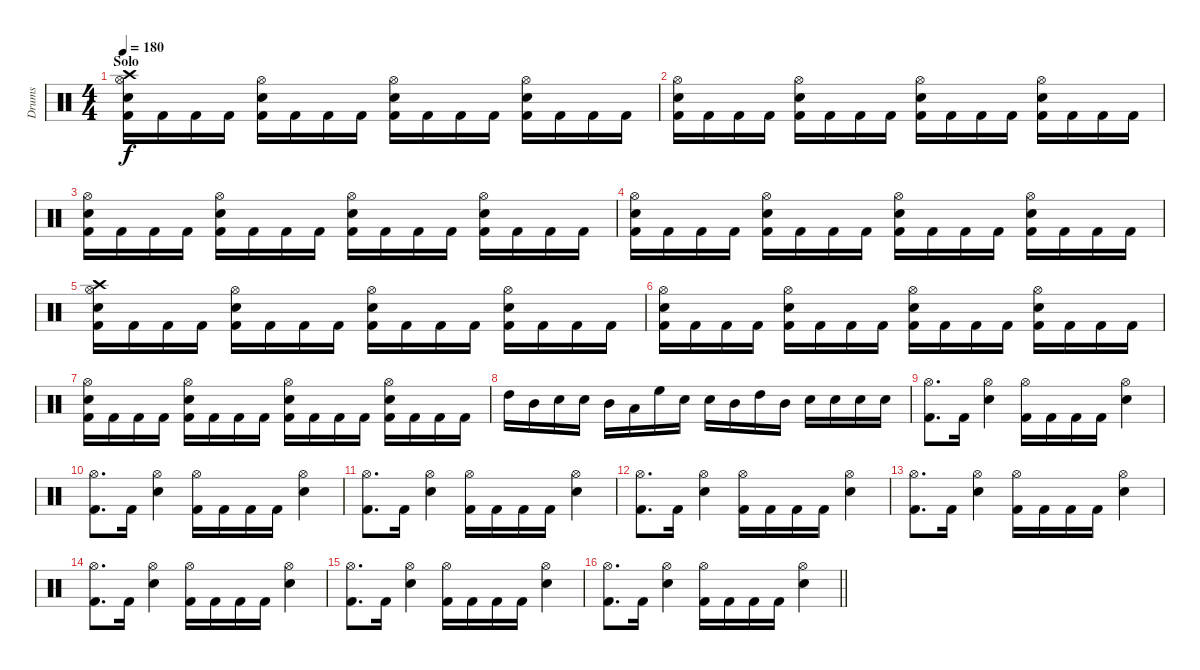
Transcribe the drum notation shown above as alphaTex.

\track ("Drums" "Drums") {instrument percussion}
\staff {score}
\articulation defaults
\ts (4 4)
\section ("" "Solo")
\tempo 180
\clef neutral
\ks c
("Crash high (hit)" "Hi-Hat (open)" "Electric Snare (hit)" "Kick (hit) 2").16{dy f} "Kick (hit) 2".16 "Kick (hit) 2".16 "Kick (hit) 2".16 ("Hi-Hat (open)" "Electric Snare (hit)" "Kick (hit) 2").16 "Kick (hit) 2".16 "Kick (hit) 2".16 "Kick (hit) 2".16 ("Hi-Hat (open)" "Electric Snare (hit)" "Kick (hit) 2").16 "Kick (hit) 2".16 "Kick (hit) 2".16 "Kick (hit) 2".16 ("Hi-Hat (open)" "Electric Snare (hit)" "Kick (hit) 2").16 "Kick (hit) 2".16 "Kick (hit) 2".16 "Kick (hit) 2".16 |
("Hi-Hat (open)" "Electric Snare (hit)" "Kick (hit) 2").16 "Kick (hit) 2".16 "Kick (hit) 2".16 "Kick (hit) 2".16 ("Hi-Hat (open)" "Electric Snare (hit)" "Kick (hit) 2").16 "Kick (hit) 2".16 "Kick (hit) 2".16 "Kick (hit) 2".16 ("Hi-Hat (open)" "Electric Snare (hit)" "Kick (hit) 2").16 "Kick (hit) 2".16 "Kick (hit) 2".16 "Kick (hit) 2".16 ("Hi-Hat (open)" "Electric Snare (hit)" "Kick (hit) 2").16 "Kick (hit) 2".16 "Kick (hit) 2".16 "Kick (hit) 2".16 |
("Hi-Hat (open)" "Electric Snare (hit)" "Kick (hit) 2").16 "Kick (hit) 2".16 "Kick (hit) 2".16 "Kick (hit) 2".16 ("Hi-Hat (open)" "Electric Snare (hit)" "Kick (hit) 2").16 "Kick (hit) 2".16 "Kick (hit) 2".16 "Kick (hit) 2".16 ("Hi-Hat (open)" "Electric Snare (hit)" "Kick (hit) 2").16 "Kick (hit) 2".16 "Kick (hit) 2".16 "Kick (hit) 2".16 ("Hi-Hat (open)" "Electric Snare (hit)" "Kick (hit) 2").16 "Kick (hit) 2".16 "Kick (hit) 2".16 "Kick (hit) 2".16 |
("Hi-Hat (open)" "Electric Snare (hit)" "Kick (hit) 2").16 "Kick (hit) 2".16 "Kick (hit) 2".16 "Kick (hit) 2".16 ("Hi-Hat (open)" "Electric Snare (hit)" "Kick (hit) 2").16 "Kick (hit) 2".16 "Kick (hit) 2".16 "Kick (hit) 2".16 ("Hi-Hat (open)" "Electric Snare (hit)" "Kick (hit) 2").16 "Kick (hit) 2".16 "Kick (hit) 2".16 "Kick (hit) 2".16 ("Hi-Hat (open)" "Electric Snare (hit)" "Kick (hit) 2").16 "Kick (hit) 2".16 "Kick (hit) 2".16 "Kick (hit) 2".16 |
("Crash high (hit)" "Hi-Hat (open)" "Electric Snare (hit)" "Kick (hit) 2").16 "Kick (hit) 2".16 "Kick (hit) 2".16 "Kick (hit) 2".16 ("Hi-Hat (open)" "Electric Snare (hit)" "Kick (hit) 2").16 "Kick (hit) 2".16 "Kick (hit) 2".16 "Kick (hit) 2".16 ("Hi-Hat (open)" "Electric Snare (hit)" "Kick (hit) 2").16 "Kick (hit) 2".16 "Kick (hit) 2".16 "Kick (hit) 2".16 ("Hi-Hat (open)" "Electric Snare (hit)" "Kick (hit) 2").16 "Kick (hit) 2".16 "Kick (hit) 2".16 "Kick (hit) 2".16 |
("Hi-Hat (open)" "Electric Snare (hit)" "Kick (hit) 2").16 "Kick (hit) 2".16 "Kick (hit) 2".16 "Kick (hit) 2".16 ("Hi-Hat (open)" "Electric Snare (hit)" "Kick (hit) 2").16 "Kick (hit) 2".16 "Kick (hit) 2".16 "Kick (hit) 2".16 ("Hi-Hat (open)" "Electric Snare (hit)" "Kick (hit) 2").16 "Kick (hit) 2".16 "Kick (hit) 2".16 "Kick (hit) 2".16 ("Hi-Hat (open)" "Electric Snare (hit)" "Kick (hit) 2").16 "Kick (hit) 2".16 "Kick (hit) 2".16 "Kick (hit) 2".16 |
("Hi-Hat (open)" "Electric Snare (hit)" "Kick (hit) 2").16 "Kick (hit) 2".16 "Kick (hit) 2".16 "Kick (hit) 2".16 ("Hi-Hat (open)" "Electric Snare (hit)" "Kick (hit) 2").16 "Kick (hit) 2".16 "Kick (hit) 2".16 "Kick (hit) 2".16 ("Hi-Hat (open)" "Electric Snare (hit)" "Kick (hit) 2").16 "Kick (hit) 2".16 "Kick (hit) 2".16 "Kick (hit) 2".16 ("Hi-Hat (open)" "Electric Snare (hit)" "Kick (hit) 2").16 "Kick (hit) 2".16 "Kick (hit) 2".16 "Kick (hit) 2".16 |
"High Tom (hit)".16 "Mid Tom (hit)".16 "Electric Snare (hit)".16 "Electric Snare (hit)".16 "Mid Tom (hit)".16 "Low Tom (hit)".16 "High Floor Tom (hit)".16 "Electric Snare (hit)".16 "Electric Snare (hit)".16 "Mid Tom (hit)".16 "High Tom (hit)".16 "Mid Tom (hit)".16 "Electric Snare (hit)".16 "Electric Snare (hit)".16 "Electric Snare (hit)".16 "Electric Snare (hit)".16 |
("Hi-Hat (open)" "Kick (hit) 2").8{d} "Kick (hit) 2".16 ("Hi-Hat (open)" "Electric Snare (hit)").4 ("Hi-Hat (open)" "Kick (hit) 2").16 "Kick (hit) 2".16 "Kick (hit) 2".16 "Kick (hit) 2".16 ("Hi-Hat (open)" "Electric Snare (hit)").4 |
("Hi-Hat (open)" "Kick (hit) 2").8{d} "Kick (hit) 2".16 ("Hi-Hat (open)" "Electric Snare (hit)").4 ("Hi-Hat (open)" "Kick (hit) 2").16 "Kick (hit) 2".16 "Kick (hit) 2".16 "Kick (hit) 2".16 ("Hi-Hat (open)" "Electric Snare (hit)").4 |
("Hi-Hat (open)" "Kick (hit) 2").8{d} "Kick (hit) 2".16 ("Hi-Hat (open)" "Electric Snare (hit)").4 ("Hi-Hat (open)" "Kick (hit) 2").16 "Kick (hit) 2".16 "Kick (hit) 2".16 "Kick (hit) 2".16 ("Hi-Hat (open)" "Electric Snare (hit)").4 |
("Hi-Hat (open)" "Kick (hit) 2").8{d} "Kick (hit) 2".16 ("Hi-Hat (open)" "Electric Snare (hit)").4 ("Hi-Hat (open)" "Kick (hit) 2").16 "Kick (hit) 2".16 "Kick (hit) 2".16 "Kick (hit) 2".16 ("Hi-Hat (open)" "Electric Snare (hit)").4 |
("Hi-Hat (open)" "Kick (hit) 2").8{d} "Kick (hit) 2".16 ("Hi-Hat (open)" "Electric Snare (hit)").4 ("Hi-Hat (open)" "Kick (hit) 2").16 "Kick (hit) 2".16 "Kick (hit) 2".16 "Kick (hit) 2".16 ("Hi-Hat (open)" "Electric Snare (hit)").4 |
("Hi-Hat (open)" "Kick (hit) 2").8{d} "Kick (hit) 2".16 ("Hi-Hat (open)" "Electric Snare (hit)").4 ("Hi-Hat (open)" "Kick (hit) 2").16 "Kick (hit) 2".16 "Kick (hit) 2".16 "Kick (hit) 2".16 ("Hi-Hat (open)" "Electric Snare (hit)").4 |
("Hi-Hat (open)" "Kick (hit) 2").8{d} "Kick (hit) 2".16 ("Hi-Hat (open)" "Electric Snare (hit)").4 ("Hi-Hat (open)" "Kick (hit) 2").16 "Kick (hit) 2".16 "Kick (hit) 2".16 "Kick (hit) 2".16 ("Hi-Hat (open)" "Electric Snare (hit)").4 |
\barLineRight lightlight
("Hi-Hat (open)" "Kick (hit) 2").8{d} "Kick (hit) 2".16 ("Hi-Hat (open)" "Electric Snare (hit)").4 ("Hi-Hat (open)" "Kick (hit) 2").16 "Kick (hit) 2".16 "Kick (hit) 2".16 "Kick (hit) 2".16 ("Hi-Hat (open)" "Electric Snare (hit)").4
